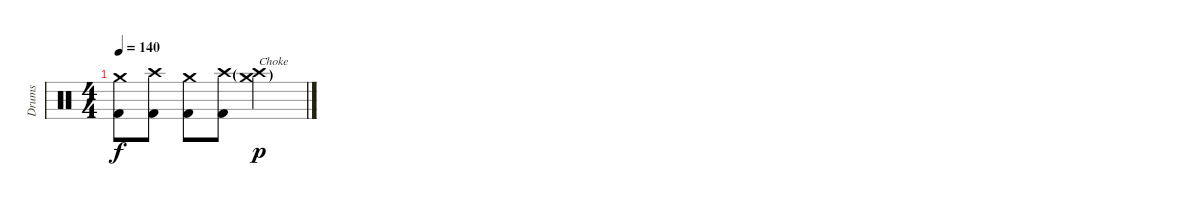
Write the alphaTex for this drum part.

\track ("Drums" "Drums") {instrument percussion}
\staff {score}
\articulation defaults
\ts (4 4)
\tempo 140
\clef neutral
\ks c
("Crash medium (hit)" "Kick (hit) 2").8{dy f} ("Crash high (hit)" "Kick (hit) 2").8 ("Crash medium (hit)" "Kick (hit) 2").8 ("Crash high (hit)" "Kick (hit) 2").8 ("Crash medium (hit)"{g} "Crash high (hit)"{g}).2{txt "Choke" dy p}
